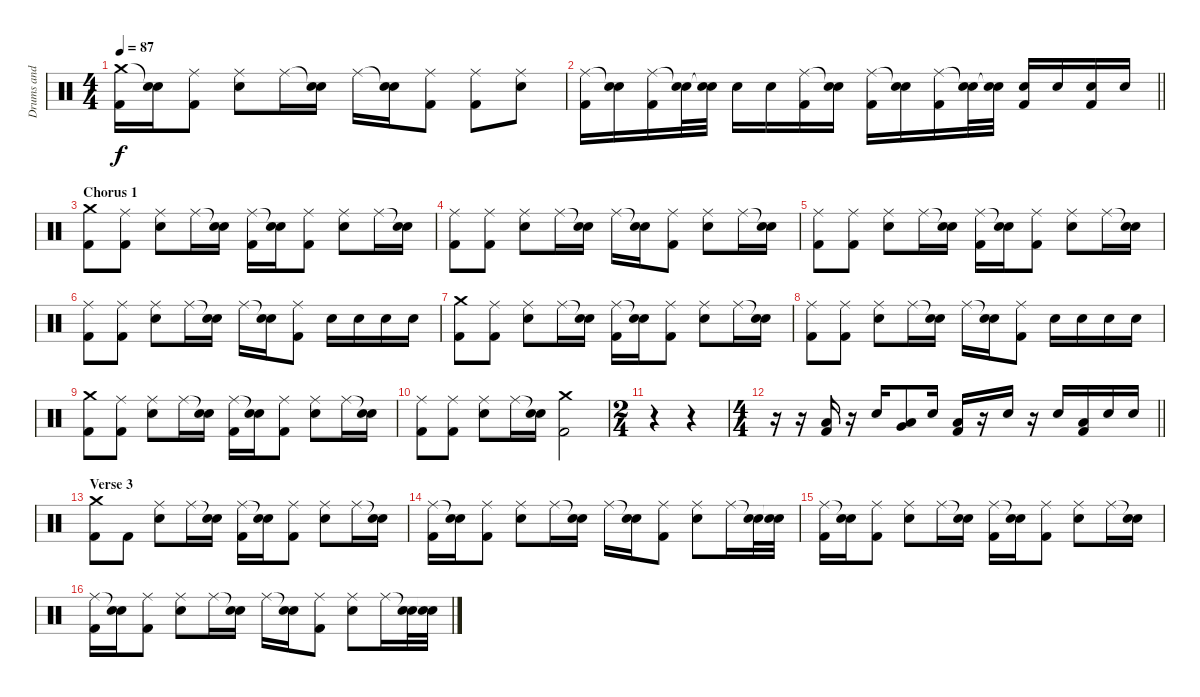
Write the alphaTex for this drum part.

\track ("Drums and Percussion" "Drums and ") {instrument percussion}
\staff {score}
\articulation defaults
\ts (4 4)
\tempo 87
\clef neutral
\ks c
("Crash medium (hit)" "Kick (hit) 2").16{dy f} ("Snare (hit)"{t} "Snare (hit) 2").16 ("Ride (middle)" "Kick (hit) 2").8 ("Ride (middle)" "Snare (hit) 2").8 "Ride (middle)".16 ("Snare (hit)"{t} "Snare (hit) 2").16 "Ride (middle)".16 ("Snare (hit)"{t} "Snare (hit) 2").16 ("Ride (middle)" "Kick (hit) 2").8 ("Ride (middle)" "Kick (hit) 2").8 ("Ride (middle)" "Snare (hit) 2").8 |
\barLineRight lightlight
("Ride (middle)" "Kick (hit) 2").16 ("Snare (hit)"{t} "Snare (hit) 2").16 ("Ride (middle)" "Kick (hit) 2").16 ("Snare (hit)"{t} "Snare (hit) 2").32 ("Snare (hit)"{t} "Snare (hit) 2").32 "Snare (hit) 2".16 "Snare (hit) 2".16 ("Ride (middle)" "Kick (hit) 2").16 ("Snare (hit)"{t} "Snare (hit) 2").16 ("Ride (middle)" "Kick (hit) 2").16 ("Snare (hit)"{t} "Snare (hit) 2").16 ("Ride (middle)" "Kick (hit) 2").16 ("Snare (hit)"{t} "Snare (hit) 2").32 ("Snare (hit)"{t} "Snare (hit) 2").32 ("Snare (hit) 2" "Kick (hit) 2").16 "Snare (hit) 2".16 ("Snare (hit) 2" "Kick (hit) 2").16 "Snare (hit) 2".16 |
\section ("" "Chorus 1")
("Crash medium (hit)" "Kick (hit) 2").8 ("Ride (middle)" "Kick (hit) 2").8 ("Ride (middle)" "Snare (hit) 2").8 "Ride (middle)".16 ("Snare (hit)"{t} "Snare (hit) 2").16 ("Ride (middle)" "Kick (hit) 2").16 ("Snare (hit)"{t} "Snare (hit) 2").16 ("Ride (middle)" "Kick (hit) 2").8 ("Ride (middle)" "Snare (hit) 2").8 "Ride (middle)".16 ("Snare (hit)"{t} "Snare (hit) 2").16 |
("Ride (middle)" "Kick (hit) 2").8 ("Ride (middle)" "Kick (hit) 2").8 ("Ride (middle)" "Snare (hit) 2").8 "Ride (middle)".16 ("Snare (hit)"{t} "Snare (hit) 2").16 "Ride (middle)".16 ("Snare (hit)"{t} "Snare (hit) 2").16 ("Ride (middle)" "Kick (hit) 2").8 ("Ride (middle)" "Snare (hit) 2").8 "Ride (middle)".16 ("Snare (hit)"{t} "Snare (hit) 2").16 |
("Ride (middle)" "Kick (hit) 2").8 ("Ride (middle)" "Kick (hit) 2").8 ("Ride (middle)" "Snare (hit) 2").8 "Ride (middle)".16 ("Snare (hit)"{t} "Snare (hit) 2").16 ("Ride (middle)" "Kick (hit) 2").16 ("Snare (hit)"{t} "Snare (hit) 2").16 ("Ride (middle)" "Kick (hit) 2").8 ("Ride (middle)" "Snare (hit) 2").8 "Ride (middle)".16 ("Snare (hit)"{t} "Snare (hit) 2").16 |
("Ride (middle)" "Kick (hit) 2").8 ("Ride (middle)" "Kick (hit) 2").8 ("Ride (middle)" "Snare (hit) 2").8 "Ride (middle)".16 ("Snare (hit)"{t} "Snare (hit) 2").16 "Ride (middle)".16 ("Snare (hit)"{t} "Snare (hit) 2").16 ("Ride (middle)" "Kick (hit) 2").8 "Snare (hit) 2".16 "Snare (hit) 2".16 "Snare (hit) 2".16 "Snare (hit) 2".16 |
("Crash medium (hit)" "Kick (hit) 2").8 ("Ride (middle)" "Kick (hit) 2").8 ("Ride (middle)" "Snare (hit) 2").8 "Ride (middle)".16 ("Snare (hit)"{t} "Snare (hit) 2").16 ("Ride (middle)" "Kick (hit) 2").16 ("Snare (hit)"{t} "Snare (hit) 2").16 ("Ride (middle)" "Kick (hit) 2").8 ("Ride (middle)" "Snare (hit) 2").8 "Ride (middle)".16 ("Snare (hit)"{t} "Snare (hit) 2").16 |
("Ride (middle)" "Kick (hit) 2").8 ("Ride (middle)" "Kick (hit) 2").8 ("Ride (middle)" "Snare (hit) 2").8 "Ride (middle)".16 ("Snare (hit)"{t} "Snare (hit) 2").16 "Ride (middle)".16 ("Snare (hit)"{t} "Snare (hit) 2").16 ("Ride (middle)" "Kick (hit) 2").8 "Snare (hit) 2".16 "Snare (hit) 2".16 "Snare (hit) 2".16 "Snare (hit) 2".16 |
("Crash medium (hit)" "Kick (hit) 2").8 ("Ride (middle)" "Kick (hit) 2").8 ("Ride (middle)" "Snare (hit) 2").8 "Ride (middle)".16 ("Snare (hit)"{t} "Snare (hit) 2").16 ("Ride (middle)" "Kick (hit) 2").16 ("Snare (hit)"{t} "Snare (hit) 2").16 ("Ride (middle)" "Kick (hit) 2").8 ("Ride (middle)" "Snare (hit) 2").8 "Ride (middle)".16 ("Snare (hit)"{t} "Snare (hit) 2").16 |
("Ride (middle)" "Kick (hit) 2").8 ("Ride (middle)" "Kick (hit) 2").8 ("Ride (middle)" "Snare (hit) 2").8 "Ride (middle)".16 ("Snare (hit)"{t} "Snare (hit) 2").16 ("Crash medium (hit)" "Kick (hit) 2").2 |
\ts (2 4)
r.4 r.4 |
\ts (4 4)
\barLineRight lightlight
r.16 r.16 ("Low Tom (hit)" "Kick (hit) 2").16 r.16 "Electric Snare (hit)".16 ("Low Tom (hit)" "Very Low Tom (hit)").8 "Electric Snare (hit)".16 ("Low Tom (hit)" "Kick (hit) 2").16 r.16 "Electric Snare (hit)".16 r.16 "Electric Snare (hit)".16 ("Low Tom (hit)" "Kick (hit) 2").16 "Electric Snare (hit)".16 "Electric Snare (hit)".16 |
\section ("" "Verse 3")
("Crash medium (hit)" "Kick (hit) 2").8 "Kick (hit) 2".8 ("Ride (middle)" "Snare (hit) 2").8 "Ride (middle)".16 ("Snare (hit)"{t} "Snare (hit) 2").16 ("Ride (middle)" "Kick (hit) 2").16 ("Snare (hit)"{t} "Snare (hit) 2").16 ("Ride (middle)" "Kick (hit) 2").8 ("Ride (middle)" "Snare (hit) 2").8 "Ride (middle)".16 ("Snare (hit)"{t} "Snare (hit) 2").16 |
("Ride (middle)" "Kick (hit) 2").16 ("Snare (hit)"{t} "Snare (hit) 2").16 ("Ride (middle)" "Kick (hit) 2").8 ("Ride (middle)" "Snare (hit) 2").8 "Ride (middle)".16 ("Snare (hit)"{t} "Snare (hit) 2").16 "Ride (middle)".16 ("Snare (hit)"{t} "Snare (hit) 2").16 ("Ride (middle)" "Kick (hit) 2").8 ("Ride (middle)" "Snare (hit) 2").8 "Ride (middle)".16 ("Snare (hit)"{t} "Snare (hit) 2").32 ("Snare (hit)"{t} "Snare (hit) 2").32 |
("Ride (middle)" "Kick (hit) 2").16 ("Snare (hit)"{t} "Snare (hit) 2").16 ("Ride (middle)" "Kick (hit) 2").8 ("Ride (middle)" "Snare (hit) 2").8 "Ride (middle)".16 ("Snare (hit)"{t} "Snare (hit) 2").16 ("Ride (middle)" "Kick (hit) 2").16 ("Snare (hit)"{t} "Snare (hit) 2").16 ("Ride (middle)" "Kick (hit) 2").8 ("Ride (middle)" "Snare (hit) 2").8 "Ride (middle)".16 ("Snare (hit)"{t} "Snare (hit) 2").16 |
("Ride (middle)" "Kick (hit) 2").16 ("Snare (hit)"{t} "Snare (hit) 2").16 ("Ride (middle)" "Kick (hit) 2").8 ("Ride (middle)" "Snare (hit) 2").8 "Ride (middle)".16 ("Snare (hit)"{t} "Snare (hit) 2").16 "Ride (middle)".16 ("Snare (hit)"{t} "Snare (hit) 2").16 ("Ride (middle)" "Kick (hit) 2").8 ("Ride (middle)" "Snare (hit) 2").8 "Ride (middle)".16 ("Snare (hit)"{t} "Snare (hit) 2").32 ("Snare (hit)"{t} "Snare (hit) 2").32
